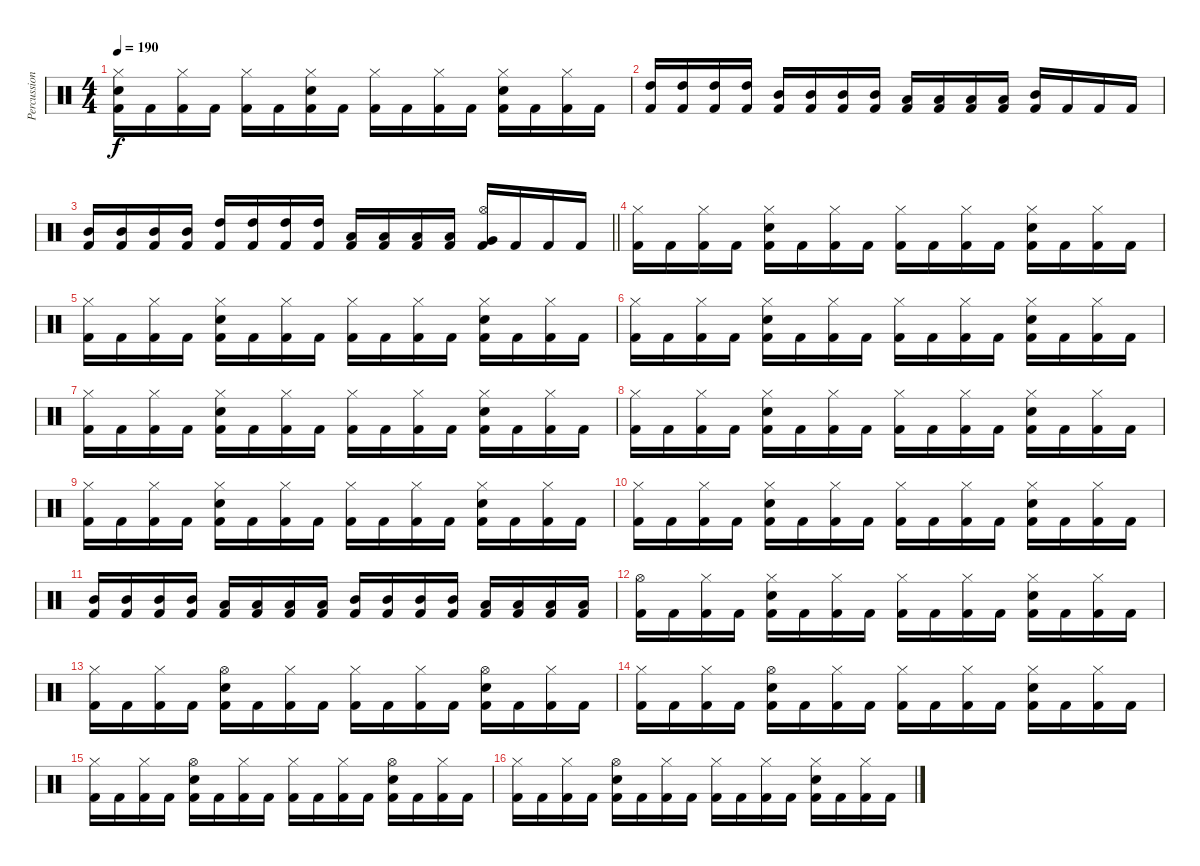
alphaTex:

\track ("Percussion" "Percussion") {instrument percussion}
\staff {score}
\articulation defaults
\ts (4 4)
\tempo 190
\clef neutral
\ks c
("Hi-Hat (closed)" "Snare (hit) 2" "Kick (hit) 2").16{dy f} "Kick (hit) 2".16 ("Hi-Hat (closed)" "Kick (hit) 2").16 "Kick (hit) 2".16 ("Hi-Hat (closed)" "Kick (hit) 2").16 "Kick (hit) 2".16 ("Hi-Hat (closed)" "Snare (hit) 2" "Kick (hit) 2").16 "Kick (hit) 2".16 ("Hi-Hat (closed)" "Kick (hit) 2").16 "Kick (hit) 2".16 ("Hi-Hat (closed)" "Kick (hit) 2").16 "Kick (hit) 2".16 ("Hi-Hat (closed)" "Snare (hit) 2" "Kick (hit) 2").16 "Kick (hit) 2".16 ("Hi-Hat (closed)" "Kick (hit) 2").16 "Kick (hit) 2".16 |
("High Tom (hit)" "Kick (hit) 2").16 ("High Tom (hit)" "Kick (hit) 2").16 ("High Tom (hit)" "Kick (hit) 2").16 ("High Tom (hit)" "Kick (hit) 2").16 ("Mid Tom (hit)" "Kick (hit) 2").16 ("Mid Tom (hit)" "Kick (hit) 2").16 ("Mid Tom (hit)" "Kick (hit) 2").16 ("Mid Tom (hit)" "Kick (hit) 2").16 ("Low Tom (hit)" "Kick (hit) 2").16 ("Low Tom (hit)" "Kick (hit) 2").16 ("Low Tom (hit)" "Kick (hit) 2").16 ("Low Tom (hit)" "Kick (hit) 2").16 ("Mid Tom (hit)" "Kick (hit) 2").16 "Kick (hit) 2".16 "Kick (hit) 2".16 "Kick (hit) 2".16 |
\barLineRight lightlight
("Mid Tom (hit)" "Kick (hit) 2").16 ("Mid Tom (hit)" "Kick (hit) 2").16 ("Mid Tom (hit)" "Kick (hit) 2").16 ("Mid Tom (hit)" "Kick (hit) 2").16 ("High Tom (hit)" "Kick (hit) 2").16 ("High Tom (hit)" "Kick (hit) 2").16 ("High Tom (hit)" "Kick (hit) 2").16 ("High Tom (hit)" "Kick (hit) 2").16 ("Low Tom (hit)" "Kick (hit) 2").16 ("Low Tom (hit)" "Kick (hit) 2").16 ("Low Tom (hit)" "Kick (hit) 2").16 ("Low Tom (hit)" "Kick (hit) 2").16 ("Hi-Hat (open)" "Very Low Tom (hit)" "Kick (hit) 2").16 "Kick (hit) 2".16 "Kick (hit) 2".16 "Kick (hit) 2".16 |
\section ("" "")
("Hi-Hat (closed)" "Kick (hit) 2").16 "Kick (hit) 2".16 ("Hi-Hat (closed)" "Kick (hit) 2").16 "Kick (hit) 2".16 ("Hi-Hat (closed)" "Snare (hit) 2" "Kick (hit) 2").16 "Kick (hit) 2".16 ("Hi-Hat (closed)" "Kick (hit) 2").16 "Kick (hit) 2".16 ("Hi-Hat (closed)" "Kick (hit) 2").16 "Kick (hit) 2".16 ("Hi-Hat (closed)" "Kick (hit) 2").16 "Kick (hit) 2".16 ("Hi-Hat (closed)" "Snare (hit) 2" "Kick (hit) 2").16 "Kick (hit) 2".16 ("Hi-Hat (closed)" "Kick (hit) 2").16 "Kick (hit) 2".16 |
("Hi-Hat (closed)" "Kick (hit) 2").16 "Kick (hit) 2".16 ("Hi-Hat (closed)" "Kick (hit) 2").16 "Kick (hit) 2".16 ("Hi-Hat (closed)" "Snare (hit) 2" "Kick (hit) 2").16 "Kick (hit) 2".16 ("Hi-Hat (closed)" "Kick (hit) 2").16 "Kick (hit) 2".16 ("Hi-Hat (closed)" "Kick (hit) 2").16 "Kick (hit) 2".16 ("Hi-Hat (closed)" "Kick (hit) 2").16 "Kick (hit) 2".16 ("Hi-Hat (closed)" "Snare (hit) 2" "Kick (hit) 2").16 "Kick (hit) 2".16 ("Hi-Hat (closed)" "Kick (hit) 2").16 "Kick (hit) 2".16 |
("Hi-Hat (closed)" "Kick (hit) 2").16 "Kick (hit) 2".16 ("Hi-Hat (closed)" "Kick (hit) 2").16 "Kick (hit) 2".16 ("Hi-Hat (closed)" "Snare (hit) 2" "Kick (hit) 2").16 "Kick (hit) 2".16 ("Hi-Hat (closed)" "Kick (hit) 2").16 "Kick (hit) 2".16 ("Hi-Hat (closed)" "Kick (hit) 2").16 "Kick (hit) 2".16 ("Hi-Hat (closed)" "Kick (hit) 2").16 "Kick (hit) 2".16 ("Hi-Hat (closed)" "Snare (hit) 2" "Kick (hit) 2").16 "Kick (hit) 2".16 ("Hi-Hat (closed)" "Kick (hit) 2").16 "Kick (hit) 2".16 |
("Hi-Hat (closed)" "Kick (hit) 2").16 "Kick (hit) 2".16 ("Hi-Hat (closed)" "Kick (hit) 2").16 "Kick (hit) 2".16 ("Hi-Hat (closed)" "Snare (hit) 2" "Kick (hit) 2").16 "Kick (hit) 2".16 ("Hi-Hat (closed)" "Kick (hit) 2").16 "Kick (hit) 2".16 ("Hi-Hat (closed)" "Kick (hit) 2").16 "Kick (hit) 2".16 ("Hi-Hat (closed)" "Kick (hit) 2").16 "Kick (hit) 2".16 ("Hi-Hat (closed)" "Snare (hit) 2" "Kick (hit) 2").16 "Kick (hit) 2".16 ("Hi-Hat (closed)" "Kick (hit) 2").16 "Kick (hit) 2".16 |
("Hi-Hat (closed)" "Kick (hit) 2").16 "Kick (hit) 2".16 ("Hi-Hat (closed)" "Kick (hit) 2").16 "Kick (hit) 2".16 ("Hi-Hat (closed)" "Snare (hit) 2" "Kick (hit) 2").16 "Kick (hit) 2".16 ("Hi-Hat (closed)" "Kick (hit) 2").16 "Kick (hit) 2".16 ("Hi-Hat (closed)" "Kick (hit) 2").16 "Kick (hit) 2".16 ("Hi-Hat (closed)" "Kick (hit) 2").16 "Kick (hit) 2".16 ("Hi-Hat (closed)" "Snare (hit) 2" "Kick (hit) 2").16 "Kick (hit) 2".16 ("Hi-Hat (closed)" "Kick (hit) 2").16 "Kick (hit) 2".16 |
("Hi-Hat (closed)" "Kick (hit) 2").16 "Kick (hit) 2".16 ("Hi-Hat (closed)" "Kick (hit) 2").16 "Kick (hit) 2".16 ("Hi-Hat (closed)" "Snare (hit) 2" "Kick (hit) 2").16 "Kick (hit) 2".16 ("Hi-Hat (closed)" "Kick (hit) 2").16 "Kick (hit) 2".16 ("Hi-Hat (closed)" "Kick (hit) 2").16 "Kick (hit) 2".16 ("Hi-Hat (closed)" "Kick (hit) 2").16 "Kick (hit) 2".16 ("Hi-Hat (closed)" "Snare (hit) 2" "Kick (hit) 2").16 "Kick (hit) 2".16 ("Hi-Hat (closed)" "Kick (hit) 2").16 "Kick (hit) 2".16 |
("Hi-Hat (closed)" "Kick (hit) 2").16 "Kick (hit) 2".16 ("Hi-Hat (closed)" "Kick (hit) 2").16 "Kick (hit) 2".16 ("Hi-Hat (closed)" "Snare (hit) 2" "Kick (hit) 2").16 "Kick (hit) 2".16 ("Hi-Hat (closed)" "Kick (hit) 2").16 "Kick (hit) 2".16 ("Hi-Hat (closed)" "Kick (hit) 2").16 "Kick (hit) 2".16 ("Hi-Hat (closed)" "Kick (hit) 2").16 "Kick (hit) 2".16 ("Hi-Hat (closed)" "Snare (hit) 2" "Kick (hit) 2").16 "Kick (hit) 2".16 ("Hi-Hat (closed)" "Kick (hit) 2").16 "Kick (hit) 2".16 |
("Mid Tom (hit)" "Kick (hit) 2").16 ("Mid Tom (hit)" "Kick (hit) 2").16 ("Mid Tom (hit)" "Kick (hit) 2").16 ("Mid Tom (hit)" "Kick (hit) 2").16 ("Low Tom (hit)" "Kick (hit) 2").16 ("Low Tom (hit)" "Kick (hit) 2").16 ("Low Tom (hit)" "Kick (hit) 2").16 ("Low Tom (hit)" "Kick (hit) 2").16 ("Mid Tom (hit)" "Kick (hit) 2").16 ("Mid Tom (hit)" "Kick (hit) 2").16 ("Mid Tom (hit)" "Kick (hit) 2").16 ("Mid Tom (hit)" "Kick (hit) 2").16 ("Low Tom (hit)" "Kick (hit) 2").16 ("Low Tom (hit)" "Kick (hit) 2").16 ("Low Tom (hit)" "Kick (hit) 2").16 ("Low Tom (hit)" "Kick (hit) 2").16 |
("Hi-Hat (open)" "Kick (hit) 2").16 "Kick (hit) 2".16 ("Hi-Hat (closed)" "Kick (hit) 2").16 "Kick (hit) 2".16 ("Hi-Hat (closed)" "Snare (hit) 2" "Kick (hit) 2").16 "Kick (hit) 2".16 ("Hi-Hat (closed)" "Kick (hit) 2").16 "Kick (hit) 2".16 ("Hi-Hat (closed)" "Kick (hit) 2").16 "Kick (hit) 2".16 ("Hi-Hat (closed)" "Kick (hit) 2").16 "Kick (hit) 2".16 ("Hi-Hat (closed)" "Snare (hit) 2" "Kick (hit) 2").16 "Kick (hit) 2".16 ("Hi-Hat (closed)" "Kick (hit) 2").16 "Kick (hit) 2".16 |
("Hi-Hat (closed)" "Kick (hit) 2").16 "Kick (hit) 2".16 ("Hi-Hat (closed)" "Kick (hit) 2").16 "Kick (hit) 2".16 ("Hi-Hat (open)" "Snare (hit) 2" "Kick (hit) 2").16 "Kick (hit) 2".16 ("Hi-Hat (closed)" "Kick (hit) 2").16 "Kick (hit) 2".16 ("Hi-Hat (closed)" "Kick (hit) 2").16 "Kick (hit) 2".16 ("Hi-Hat (closed)" "Kick (hit) 2").16 "Kick (hit) 2".16 ("Hi-Hat (open)" "Snare (hit) 2" "Kick (hit) 2").16 "Kick (hit) 2".16 ("Hi-Hat (closed)" "Kick (hit) 2").16 "Kick (hit) 2".16 |
("Hi-Hat (closed)" "Kick (hit) 2").16 "Kick (hit) 2".16 ("Hi-Hat (closed)" "Kick (hit) 2").16 "Kick (hit) 2".16 ("Hi-Hat (open)" "Snare (hit) 2" "Kick (hit) 2").16 "Kick (hit) 2".16 ("Hi-Hat (closed)" "Kick (hit) 2").16 "Kick (hit) 2".16 ("Hi-Hat (closed)" "Kick (hit) 2").16 "Kick (hit) 2".16 ("Hi-Hat (closed)" "Kick (hit) 2").16 "Kick (hit) 2".16 ("Hi-Hat (closed)" "Snare (hit) 2" "Kick (hit) 2").16 "Kick (hit) 2".16 ("Hi-Hat (closed)" "Kick (hit) 2").16 "Kick (hit) 2".16 |
("Hi-Hat (closed)" "Kick (hit) 2").16 "Kick (hit) 2".16 ("Hi-Hat (closed)" "Kick (hit) 2").16 "Kick (hit) 2".16 ("Hi-Hat (open)" "Snare (hit) 2" "Kick (hit) 2").16 "Kick (hit) 2".16 ("Hi-Hat (closed)" "Kick (hit) 2").16 "Kick (hit) 2".16 ("Hi-Hat (closed)" "Kick (hit) 2").16 "Kick (hit) 2".16 ("Hi-Hat (closed)" "Kick (hit) 2").16 "Kick (hit) 2".16 ("Hi-Hat (open)" "Snare (hit) 2" "Kick (hit) 2").16 "Kick (hit) 2".16 ("Hi-Hat (closed)" "Kick (hit) 2").16 "Kick (hit) 2".16 |
("Hi-Hat (closed)" "Kick (hit) 2").16 "Kick (hit) 2".16 ("Hi-Hat (closed)" "Kick (hit) 2").16 "Kick (hit) 2".16 ("Hi-Hat (open)" "Snare (hit) 2" "Kick (hit) 2").16 "Kick (hit) 2".16 ("Hi-Hat (closed)" "Kick (hit) 2").16 "Kick (hit) 2".16 ("Hi-Hat (closed)" "Kick (hit) 2").16 "Kick (hit) 2".16 ("Hi-Hat (closed)" "Kick (hit) 2").16 "Kick (hit) 2".16 ("Hi-Hat (closed)" "Snare (hit) 2" "Kick (hit) 2").16 "Kick (hit) 2".16 ("Hi-Hat (closed)" "Kick (hit) 2").16 "Kick (hit) 2".16
